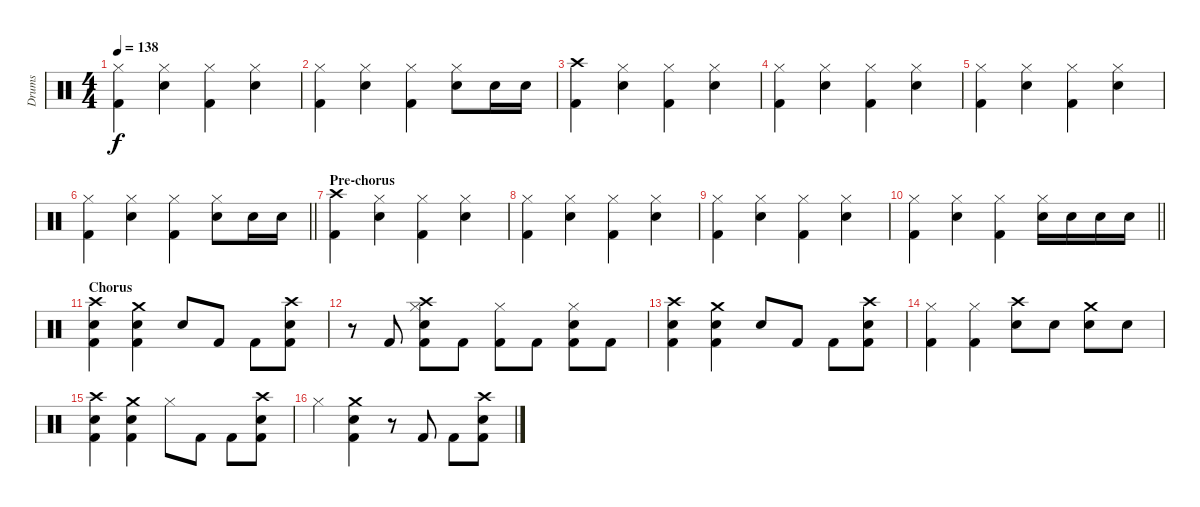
\track ("Drums" "Drums") {instrument percussion}
\staff {score}
\articulation defaults
\ts (4 4)
\tempo 138
\clef neutral
\ks c
("Hi-Hat (closed)" "Kick (hit) 2").4{dy f} ("Snare (hit) 2" "Hi-Hat (closed)").4 ("Hi-Hat (closed)" "Kick (hit) 2").4 ("Snare (hit) 2" "Hi-Hat (closed)").4 |
("Hi-Hat (closed)" "Kick (hit) 2").4 ("Snare (hit) 2" "Hi-Hat (closed)").4 ("Hi-Hat (closed)" "Kick (hit) 2").4 ("Snare (hit) 2" "Hi-Hat (closed)").8 "Snare (hit) 2".16 "Snare (hit) 2".16 |
("Crash high (hit)" "Kick (hit) 2").4 ("Snare (hit) 2" "Hi-Hat (closed)").4 ("Hi-Hat (closed)" "Kick (hit) 2").4 ("Snare (hit) 2" "Hi-Hat (closed)").4 |
("Hi-Hat (closed)" "Kick (hit) 2").4 ("Snare (hit) 2" "Hi-Hat (closed)").4 ("Hi-Hat (closed)" "Kick (hit) 2").4 ("Snare (hit) 2" "Hi-Hat (closed)").4 |
("Hi-Hat (closed)" "Kick (hit) 2").4 ("Snare (hit) 2" "Hi-Hat (closed)").4 ("Hi-Hat (closed)" "Kick (hit) 2").4 ("Snare (hit) 2" "Hi-Hat (closed)").4 |
\barLineRight lightlight
("Hi-Hat (closed)" "Kick (hit) 2").4 ("Snare (hit) 2" "Hi-Hat (closed)").4 ("Hi-Hat (closed)" "Kick (hit) 2").4 ("Snare (hit) 2" "Hi-Hat (closed)").8 "Snare (hit) 2".16 "Snare (hit) 2".16 |
\section ("" "Pre-chorus")
("Crash high (hit)" "Kick (hit) 2").4 ("Snare (hit) 2" "Hi-Hat (closed)").4 ("Hi-Hat (closed)" "Kick (hit) 2").4 ("Snare (hit) 2" "Hi-Hat (closed)").4 |
("Hi-Hat (closed)" "Kick (hit) 2").4 ("Snare (hit) 2" "Hi-Hat (closed)").4 ("Hi-Hat (closed)" "Kick (hit) 2").4 ("Snare (hit) 2" "Hi-Hat (closed)").4 |
("Hi-Hat (closed)" "Kick (hit) 2").4 ("Snare (hit) 2" "Hi-Hat (closed)").4 ("Hi-Hat (closed)" "Kick (hit) 2").4 ("Snare (hit) 2" "Hi-Hat (closed)").4 |
\barLineRight lightlight
("Hi-Hat (closed)" "Kick (hit) 2").4 ("Snare (hit) 2" "Hi-Hat (closed)").4 ("Hi-Hat (closed)" "Kick (hit) 2").4 ("Snare (hit) 2" "Hi-Hat (closed)").16 "Snare (hit) 2".16 "Snare (hit) 2".16 "Snare (hit) 2".16 |
\section ("" "Chorus")
("Crash high (hit)" "Snare (hit) 2" "Kick (hit) 2").4 ("Crash medium (hit)" "Snare (hit) 2" "Kick (hit) 2").4 "Snare (hit) 2".8 "Kick (hit) 2".8 "Kick (hit) 2".8 ("Crash high (hit)" "Snare (hit) 2" "Kick (hit) 2").8 |
r.8 "Kick (hit) 2".8 ("Crash high (hit)" "Snare (hit) 2" "Hi-Hat (closed)" "Kick (hit) 2").8 "Kick (hit) 2".8 ("Hi-Hat (closed)" "Kick (hit) 2").8 "Kick (hit) 2".8 ("Snare (hit) 2" "Hi-Hat (closed)" "Kick (hit) 2").8 "Kick (hit) 2".8 |
("Crash high (hit)" "Snare (hit) 2" "Kick (hit) 2").4 ("Crash medium (hit)" "Snare (hit) 2" "Kick (hit) 2").4 "Snare (hit) 2".8 "Kick (hit) 2".8 "Kick (hit) 2".8 ("Crash high (hit)" "Snare (hit) 2" "Kick (hit) 2").8 |
("Hi-Hat (closed)" "Kick (hit) 2").4 ("Hi-Hat (closed)" "Kick (hit) 2").4 ("Crash high (hit)" "Snare (hit) 2").8 "Snare (hit) 2".8 ("Crash medium (hit)" "Snare (hit) 2").8 "Snare (hit) 2".8 |
("Crash high (hit)" "Snare (hit) 2" "Kick (hit) 2").4 ("Crash medium (hit)" "Snare (hit) 2" "Kick (hit) 2").4 "Hi-Hat (closed)".8 "Kick (hit) 2".8 "Kick (hit) 2".8 ("Crash high (hit)" "Snare (hit) 2" "Kick (hit) 2").8 |
"Hi-Hat (closed)".4 ("Crash medium (hit)" "Snare (hit) 2" "Kick (hit) 2").4 r.8 "Kick (hit) 2".8 "Kick (hit) 2".8 ("Crash high (hit)" "Snare (hit) 2" "Kick (hit) 2").8
